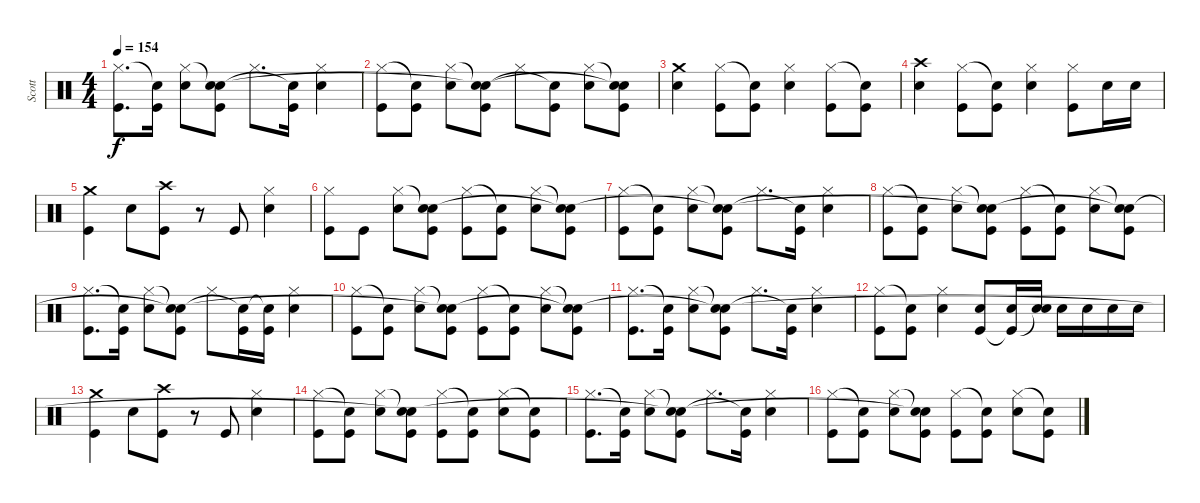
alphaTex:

\track ("Scott" "Scott") {instrument percussion}
\staff {score}
\articulation defaults
\ts (4 4)
\tempo 154
\clef neutral
\ks c
("Kick (hit)" "Hi-Hat (closed)").8{d dy f} ("Kick (hit)" "Snare (hit)"{t}).16 ("Snare (hit) 2" "Hi-Hat (closed)").8 ("Kick (hit)" "Snare (hit)"{t} "Snare (hit)"{t}).8 "Hi-Hat (closed)".8{d} ("Kick (hit)" "Snare (hit)"{t}).16 ("Snare (hit) 2" "Hi-Hat (closed)").4 |
("Kick (hit)" "Hi-Hat (closed)").8 ("Kick (hit)" "Snare (hit)"{t}).8 ("Snare (hit) 2" "Hi-Hat (closed)").8 ("Kick (hit)" "Snare (hit)"{t} "Snare (hit)"{t}).8 "Hi-Hat (closed)".8 ("Kick (hit)" "Snare (hit)"{t}).8 ("Snare (hit) 2" "Hi-Hat (closed)").8 ("Kick (hit)" "Snare (hit)"{t} "Snare (hit)"{t}).8 |
("Snare (hit) 2" "Crash medium (hit)").4 ("Kick (hit)" "Hi-Hat (closed)").8 ("Kick (hit)" "Snare (hit)"{t}).8 ("Snare (hit) 2" "Hi-Hat (closed)").4 ("Kick (hit)" "Hi-Hat (closed)").8 ("Kick (hit)" "Snare (hit)"{t}).8 |
("Snare (hit) 2" "Crash high (hit)").4 ("Kick (hit)" "Hi-Hat (closed)").8 ("Kick (hit)" "Snare (hit)"{t}).8 ("Snare (hit) 2" "Hi-Hat (closed)").4 ("Kick (hit)" "Hi-Hat (closed)").8 "Snare (hit) 2".16 "Snare (hit) 2".16 |
("Kick (hit)" "Crash medium (hit)").4 "Snare (hit) 2".8 ("Kick (hit)" "Crash high (hit)").8 r.8 "Kick (hit)".8 ("Snare (hit) 2" "Hi-Hat (closed)").4 |
("Kick (hit)" "Hi-Hat (closed)").8 "Kick (hit)".8 ("Snare (hit) 2" "Hi-Hat (closed)").8 ("Kick (hit)" "Snare (hit)"{t} "Snare (hit)").8 ("Kick (hit)" "Hi-Hat (closed)").8 ("Kick (hit)" "Snare (hit)"{t}).8 ("Snare (hit) 2" "Hi-Hat (closed)").8 ("Kick (hit)" "Snare (hit)"{t} "Snare (hit)"{t}).8 |
("Kick (hit)" "Hi-Hat (closed)").8 ("Kick (hit)" "Snare (hit)"{t}).8 ("Snare (hit) 2" "Hi-Hat (closed)").8 ("Kick (hit)" "Snare (hit)"{t} "Snare (hit)"{t}).8 "Hi-Hat (closed)".8{d} ("Kick (hit)" "Snare (hit)"{t}).16 ("Hi-Hat (closed)" "Snare (hit) 2").4 |
("Kick (hit)" "Hi-Hat (closed)").8 ("Kick (hit)" "Snare (hit)"{t}).8 ("Snare (hit) 2" "Hi-Hat (closed)").8 ("Kick (hit)" "Snare (hit)"{t} "Snare (hit)"{t}).8 ("Kick (hit)" "Hi-Hat (closed)").8 ("Kick (hit)" "Snare (hit)"{t}).8 ("Snare (hit) 2" "Hi-Hat (closed)").8 ("Kick (hit)" "Snare (hit)"{t} "Snare (hit)"{t}).8 |
("Kick (hit)" "Hi-Hat (closed)").8{d} ("Kick (hit)" "Snare (hit)"{t}).16 ("Snare (hit) 2" "Hi-Hat (closed)").8 ("Kick (hit)" "Snare (hit)"{t} "Snare (hit)"{t}).8 "Hi-Hat (closed)".8 ("Kick (hit)" "Snare (hit)"{t}).16 ("Kick (hit)" "Snare (hit)"{t}).16 ("Snare (hit) 2" "Hi-Hat (closed)").4 |
("Kick (hit)" "Hi-Hat (closed)").8 ("Kick (hit)" "Snare (hit)"{t}).8 ("Snare (hit) 2" "Hi-Hat (closed)").8 ("Kick (hit)" "Snare (hit)"{t} "Snare (hit)"{t}).8 ("Kick (hit)" "Hi-Hat (closed)").8 ("Kick (hit)" "Snare (hit)"{t}).8 ("Snare (hit) 2" "Hi-Hat (closed)").8 ("Kick (hit)" "Snare (hit)"{t} "Snare (hit)"{t}).8 |
("Kick (hit)" "Hi-Hat (closed)").8{d} ("Kick (hit)" "Snare (hit)"{t}).16 ("Snare (hit) 2" "Hi-Hat (closed)").8 ("Kick (hit)" "Snare (hit)"{t} "Snare (hit)"{t}).8 "Hi-Hat (closed)".8{d} ("Kick (hit)" "Snare (hit)"{t}).16 ("Snare (hit) 2" "Hi-Hat (closed)").4 |
("Kick (hit)" "Hi-Hat (closed)").8 ("Kick (hit)" "Snare (hit)"{t}).8 ("Snare (hit) 2" "Hi-Hat (closed)").4 ("Kick (hit)" "Snare (hit) 2").8 ("Kick (hit)"{t} "Snare (hit) 2").16 ("Snare (hit)"{t} "Snare (hit) 2").16 "Snare (hit) 2".16 "Snare (hit) 2".16 "Snare (hit) 2".16 "Snare (hit) 2".16 |
("Kick (hit)" "Crash medium (hit)").4 "Snare (hit) 2".8 ("Kick (hit)" "Crash high (hit)").8 r.8 "Kick (hit)".8 ("Snare (hit) 2" "Hi-Hat (closed)").4 |
("Kick (hit)" "Hi-Hat (closed)").8 ("Kick (hit)" "Snare (hit)"{t}).8 ("Snare (hit) 2" "Hi-Hat (closed)").8 ("Kick (hit)" "Snare (hit)"{t} "Snare (hit)"{t}).8 ("Kick (hit)" "Hi-Hat (closed)").8 ("Kick (hit)" "Snare (hit)"{t}).8 ("Snare (hit) 2" "Hi-Hat (closed)").8 ("Kick (hit)" "Snare (hit)"{t}).8 |
("Kick (hit)" "Hi-Hat (closed)").8{d} ("Kick (hit)" "Snare (hit)"{t}).16 ("Snare (hit) 2" "Hi-Hat (closed)").8 ("Kick (hit)" "Snare (hit)"{t} "Snare (hit)"{t}).8 "Hi-Hat (closed)".8{d} ("Kick (hit)" "Snare (hit)"{t}).16 ("Snare (hit) 2" "Hi-Hat (closed)").4 |
("Kick (hit)" "Hi-Hat (closed)").8 ("Kick (hit)" "Snare (hit)"{t}).8 ("Snare (hit) 2" "Hi-Hat (closed)").8 ("Kick (hit)" "Snare (hit)"{t} "Snare (hit)"{t}).8 ("Kick (hit)" "Hi-Hat (closed)").8 ("Kick (hit)" "Snare (hit)"{t}).8 ("Snare (hit) 2" "Hi-Hat (closed)").8 ("Kick (hit)" "Snare (hit)"{t}).8
